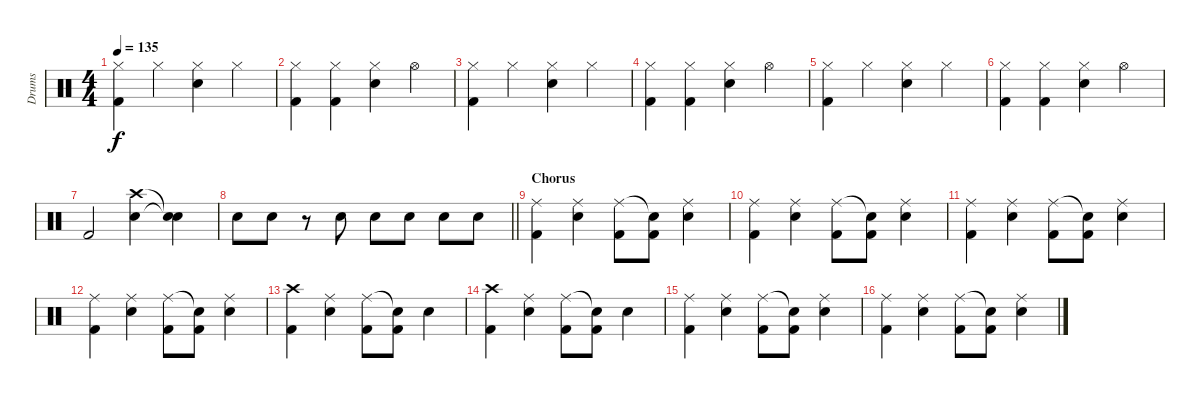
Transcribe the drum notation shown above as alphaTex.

\track ("Drums" "Drums") {instrument percussion}
\staff {score}
\articulation defaults
\ts (4 4)
\tempo 135
\clef neutral
\ks c
("Hi-Hat (closed)" "Kick (hit) 2").4{dy f} "Hi-Hat (closed)".4 ("Hi-Hat (closed)" "Snare (hit) 2").4 "Hi-Hat (closed)".4 |
("Hi-Hat (closed)" "Kick (hit) 2").4 ("Hi-Hat (closed)" "Kick (hit) 2").4 ("Hi-Hat (closed)" "Snare (hit) 2").4 "Hi-Hat (open)".4 |
("Hi-Hat (closed)" "Kick (hit) 2").4 "Hi-Hat (closed)".4 ("Hi-Hat (closed)" "Snare (hit) 2").4 "Hi-Hat (closed)".4 |
("Hi-Hat (closed)" "Kick (hit) 2").4 ("Hi-Hat (closed)" "Kick (hit) 2").4 ("Hi-Hat (closed)" "Snare (hit) 2").4 "Hi-Hat (open)".4 |
("Hi-Hat (closed)" "Kick (hit) 2").4 "Hi-Hat (closed)".4 ("Hi-Hat (closed)" "Snare (hit) 2").4 "Hi-Hat (closed)".4 |
("Hi-Hat (closed)" "Kick (hit) 2").4 ("Hi-Hat (closed)" "Kick (hit) 2").4 ("Hi-Hat (closed)" "Snare (hit) 2").4 "Hi-Hat (open)".4 |
"Kick (hit) 2".2 ("Crash high (hit)" "Snare (hit) 2").4 ("Snare (hit)"{t} "Snare (hit)"{t}).4 |
\barLineRight lightlight "Snare (hit) 2".8 "Snare (hit) 2".8
r.8 "Snare (hit) 2".8 "Snare (hit) 2".8 "Snare (hit) 2".8 "Snare (hit) 2".8 "Snare (hit) 2".8 |
\section ("" "Chorus")
("Ride (middle)" "Kick (hit) 2").4 ("Ride (middle)" "Snare (hit) 2").4 ("Ride (middle)" "Kick (hit) 2").8 ("Snare (hit)"{t} "Kick (hit) 2").8 ("Ride (middle)" "Snare (hit) 2").4 |
("Ride (middle)" "Kick (hit) 2").4 ("Ride (middle)" "Snare (hit) 2").4 ("Ride (middle)" "Kick (hit) 2").8 ("Snare (hit)"{t} "Kick (hit) 2").8 ("Ride (middle)" "Snare (hit) 2").4 |
("Ride (middle)" "Kick (hit) 2").4 ("Ride (middle)" "Snare (hit) 2").4 ("Ride (middle)" "Kick (hit) 2").8 ("Snare (hit)"{t} "Kick (hit) 2").8 ("Ride (middle)" "Snare (hit) 2").4 |
("Ride (middle)" "Kick (hit) 2").4 ("Ride (middle)" "Snare (hit) 2").4 ("Ride (middle)" "Kick (hit) 2").8 ("Snare (hit)"{t} "Kick (hit) 2").8 ("Ride (middle)" "Snare (hit) 2").4 |
("Crash high (hit)" "Kick (hit) 2").4 ("Ride (middle)" "Snare (hit) 2").4 ("Ride (middle)" "Kick (hit) 2").8 ("Snare (hit)"{t} "Kick (hit) 2").8 "Snare (hit) 2".4 |
("Crash high (hit)" "Kick (hit) 2").4 ("Ride (middle)" "Snare (hit) 2").4 ("Ride (middle)" "Kick (hit) 2").8 ("Snare (hit)"{t} "Kick (hit) 2").8 "Snare (hit) 2".4 |
("Ride (middle)" "Kick (hit) 2").4 ("Ride (middle)" "Snare (hit) 2").4 ("Ride (middle)" "Kick (hit) 2").8 ("Snare (hit)"{t} "Kick (hit) 2").8 ("Ride (middle)" "Snare (hit) 2").4 |
("Ride (middle)" "Kick (hit) 2").4 ("Ride (middle)" "Snare (hit) 2").4 ("Ride (middle)" "Kick (hit) 2").8 ("Snare (hit)"{t} "Kick (hit) 2").8 ("Ride (middle)" "Snare (hit) 2").4
